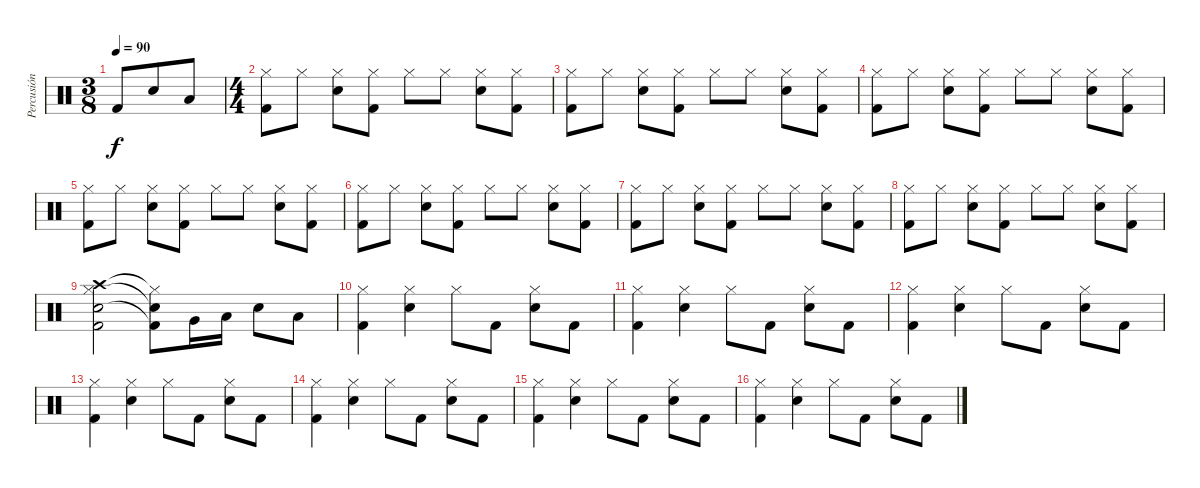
\track ("Percusión" "Percusión") {instrument percussion}
\staff {score}
\articulation defaults
\ts (3 8)
\tempo 90
\clef neutral
\ks c "Kick (hit) 2".8{dy f} "Snare (hit) 2".8 "Low Floor Tom (hit)".8
|
\ts (4 4)
("Hi-Hat (closed)" "Kick (hit) 2").8 "Hi-Hat (closed)".8 ("Hi-Hat (closed)" "Snare (hit) 2").8 ("Hi-Hat (closed)" "Kick (hit) 2").8 "Hi-Hat (closed)".8 "Hi-Hat (closed)".8 ("Hi-Hat (closed)" "Snare (hit) 2").8 ("Hi-Hat (closed)" "Kick (hit) 2").8 |
("Hi-Hat (closed)" "Kick (hit) 2").8 "Hi-Hat (closed)".8 ("Hi-Hat (closed)" "Snare (hit) 2").8 ("Hi-Hat (closed)" "Kick (hit) 2").8 "Hi-Hat (closed)".8 "Hi-Hat (closed)".8 ("Hi-Hat (closed)" "Snare (hit) 2").8 ("Hi-Hat (closed)" "Kick (hit) 2").8 |
("Hi-Hat (closed)" "Kick (hit) 2").8 "Hi-Hat (closed)".8 ("Hi-Hat (closed)" "Snare (hit) 2").8 ("Hi-Hat (closed)" "Kick (hit) 2").8 "Hi-Hat (closed)".8 "Hi-Hat (closed)".8 ("Hi-Hat (closed)" "Snare (hit) 2").8 ("Hi-Hat (closed)" "Kick (hit) 2").8 |
("Hi-Hat (closed)" "Kick (hit) 2").8 "Hi-Hat (closed)".8 ("Hi-Hat (closed)" "Snare (hit) 2").8 ("Hi-Hat (closed)" "Kick (hit) 2").8 "Hi-Hat (closed)".8 "Hi-Hat (closed)".8 ("Hi-Hat (closed)" "Snare (hit) 2").8 ("Hi-Hat (closed)" "Kick (hit) 2").8 |
("Hi-Hat (closed)" "Kick (hit) 2").8 "Hi-Hat (closed)".8 ("Hi-Hat (closed)" "Snare (hit) 2").8 ("Hi-Hat (closed)" "Kick (hit) 2").8 "Hi-Hat (closed)".8 "Hi-Hat (closed)".8 ("Hi-Hat (closed)" "Snare (hit) 2").8 ("Hi-Hat (closed)" "Kick (hit) 2").8 |
("Hi-Hat (closed)" "Kick (hit) 2").8 "Hi-Hat (closed)".8 ("Hi-Hat (closed)" "Snare (hit) 2").8 ("Hi-Hat (closed)" "Kick (hit) 2").8 "Hi-Hat (closed)".8 "Hi-Hat (closed)".8 ("Hi-Hat (closed)" "Snare (hit) 2").8 ("Hi-Hat (closed)" "Kick (hit) 2").8 |
("Hi-Hat (closed)" "Kick (hit) 2").8 "Hi-Hat (closed)".8 ("Hi-Hat (closed)" "Snare (hit) 2").8 ("Hi-Hat (closed)" "Kick (hit) 2").8 "Hi-Hat (closed)".8 "Hi-Hat (closed)".8 ("Hi-Hat (closed)" "Snare (hit) 2").8 ("Hi-Hat (closed)" "Kick (hit) 2").8 |
("Crash high (hit)" "Hi-Hat (closed)" "Snare (hit) 2" "Kick (hit) 2").2 ("Hi-Hat (closed)"{t} "Snare (hit) 2"{t} "Kick (hit) 2"{t}).8 "Very Low Tom (hit)".16 "Low Floor Tom (hit)".16 "Snare (hit) 2".8 "Low Floor Tom (hit)".8 |
("Hi-Hat (closed)" "Kick (hit) 2").4 ("Hi-Hat (closed)" "Snare (hit) 2").4 "Hi-Hat (closed)".8 "Kick (hit) 2".8 ("Hi-Hat (closed)" "Snare (hit) 2").8 "Kick (hit) 2".8 |
("Hi-Hat (closed)" "Kick (hit) 2").4 ("Hi-Hat (closed)" "Snare (hit) 2").4 "Hi-Hat (closed)".8 "Kick (hit) 2".8 ("Hi-Hat (closed)" "Snare (hit) 2").8 "Kick (hit) 2".8 |
("Hi-Hat (closed)" "Kick (hit) 2").4 ("Hi-Hat (closed)" "Snare (hit) 2").4 "Hi-Hat (closed)".8 "Kick (hit) 2".8 ("Hi-Hat (closed)" "Snare (hit) 2").8 "Kick (hit) 2".8 |
("Hi-Hat (closed)" "Kick (hit) 2").4 ("Hi-Hat (closed)" "Snare (hit) 2").4 "Hi-Hat (closed)".8 "Kick (hit) 2".8 ("Hi-Hat (closed)" "Snare (hit) 2").8 "Kick (hit) 2".8 |
("Hi-Hat (closed)" "Kick (hit) 2").4 ("Hi-Hat (closed)" "Snare (hit) 2").4 "Hi-Hat (closed)".8 "Kick (hit) 2".8 ("Hi-Hat (closed)" "Snare (hit) 2").8 "Kick (hit) 2".8 |
("Hi-Hat (closed)" "Kick (hit) 2").4 ("Hi-Hat (closed)" "Snare (hit) 2").4 "Hi-Hat (closed)".8 "Kick (hit) 2".8 ("Hi-Hat (closed)" "Snare (hit) 2").8 "Kick (hit) 2".8 |
("Hi-Hat (closed)" "Kick (hit) 2").4 ("Hi-Hat (closed)" "Snare (hit) 2").4 "Hi-Hat (closed)".8 "Kick (hit) 2".8 ("Hi-Hat (closed)" "Snare (hit) 2").8 "Kick (hit) 2".8
